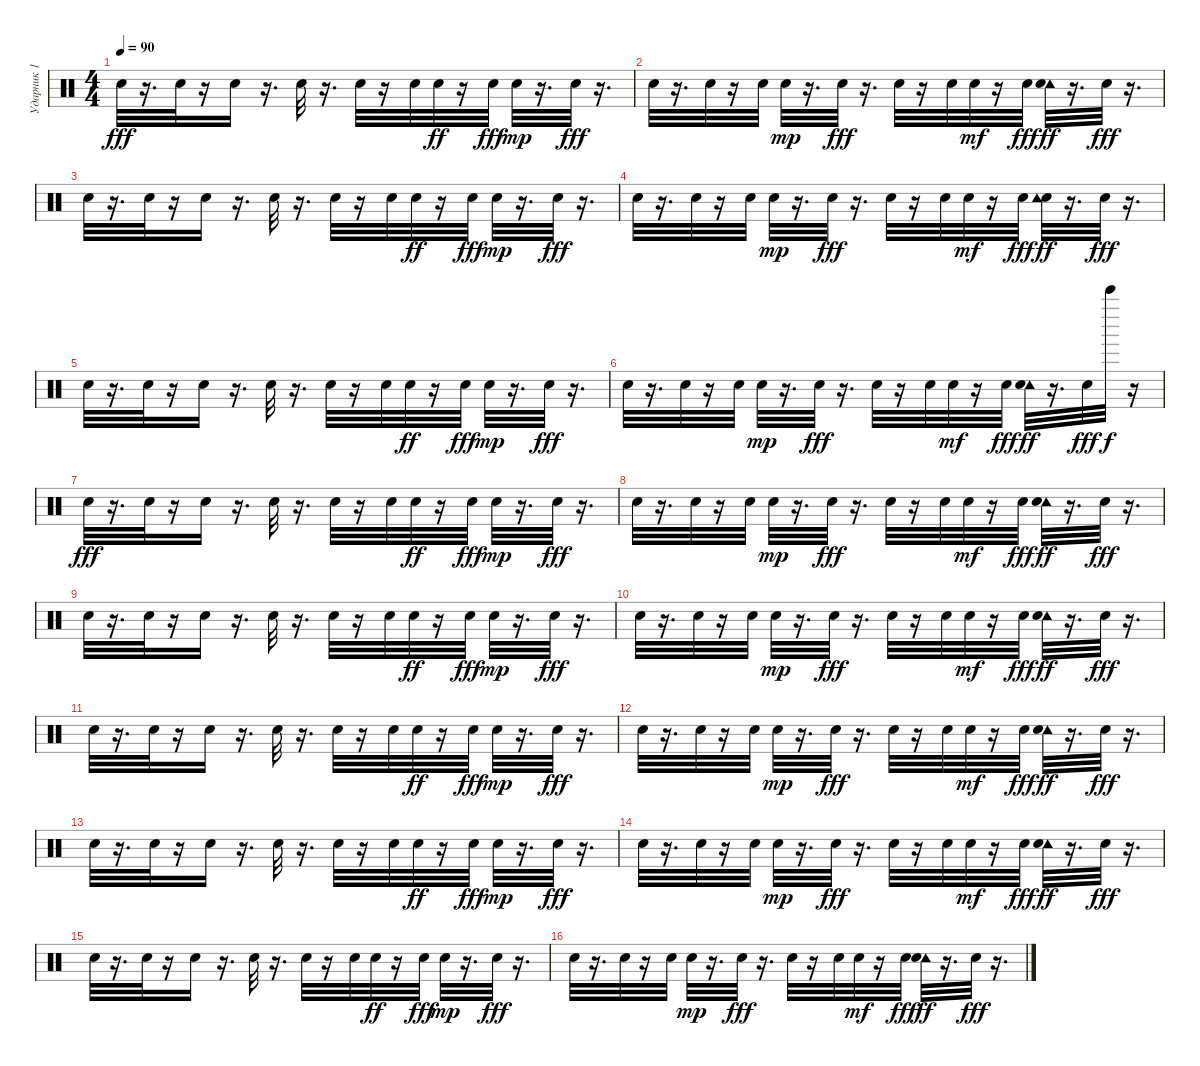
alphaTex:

\track ("Ударник 1" "Ударник 1") {instrument percussion}
\staff {score}
\articulation defaults
\ts (4 4)
\tempo 90
\clef neutral
\ks c "Snare (hit)".32{dy fff}
r.16{d} "Snare (hit)".32 r.16 "Snare (hit)".16 r.16{d} "Snare (hit)".32 r.16{d} "Snare (hit)".32 r.16 "Snare (hit)".32 "Snare (hit)".32{dy ff} r.16 "Snare (hit)".32{dy fff} "Snare (hit)".32{dy mp} r.16{d} "Snare (hit)".32{dy fff} r.16{d} |
"Snare (hit)".32 r.16{d} "Snare (hit)".32 r.16 "Snare (hit)".32 "Snare (hit)".32{dy mp} r.16{d} "Snare (hit)".32{dy fff} r.16{d} "Snare (hit)".32 r.16 "Snare (hit)".32 "Snare (hit)".32{dy mf} r.16 "Snare (hit)".32{dy fff} ("Tambourine (hit)" "Snare (hit)").32{dy ff} r.16{d} "Snare (hit)".32{dy fff} r.16{d} |
"Snare (hit)".32 r.16{d} "Snare (hit)".32 r.16 "Snare (hit)".16 r.16{d} "Snare (hit)".32 r.16{d} "Snare (hit)".32 r.16 "Snare (hit)".32 "Snare (hit)".32{dy ff} r.16 "Snare (hit)".32{dy fff} "Snare (hit)".32{dy mp} r.16{d} "Snare (hit)".32{dy fff} r.16{d} |
"Snare (hit)".32 r.16{d} "Snare (hit)".32 r.16 "Snare (hit)".32 "Snare (hit)".32{dy mp} r.16{d} "Snare (hit)".32{dy fff} r.16{d} "Snare (hit)".32 r.16 "Snare (hit)".32 "Snare (hit)".32{dy mf} r.16 "Snare (hit)".32{dy fff} ("Snare (hit)" "Tambourine (hit)").32{dy ff} r.16{d} "Snare (hit)".32{dy fff} r.16{d} |
"Snare (hit)".32 r.16{d} "Snare (hit)".32 r.16 "Snare (hit)".16 r.16{d} "Snare (hit)".32 r.16{d} "Snare (hit)".32 r.16 "Snare (hit)".32 "Snare (hit)".32{dy ff} r.16 "Snare (hit)".32{dy fff} "Snare (hit)".32{dy mp} r.16{d} "Snare (hit)".32{dy fff} r.16{d} |
"Snare (hit)".32 r.16{d} "Snare (hit)".32 r.16 "Snare (hit)".32 "Snare (hit)".32{dy mp} r.16{d} "Snare (hit)".32{dy fff} r.16{d} "Snare (hit)".32 r.16 "Snare (hit)".32 "Snare (hit)".32{dy mf} r.16 "Snare (hit)".32{dy fff} ("Tambourine (hit)" "Snare (hit)").32{dy ff} r.16{d} "Snare (hit)".32{dy fff} "Bell Tree (hit)".32{dy f} r.16 |
"Snare (hit)".32{dy fff} r.16{d} "Snare (hit)".32 r.16 "Snare (hit)".16 r.16{d} "Snare (hit)".32 r.16{d} "Snare (hit)".32 r.16 "Snare (hit)".32 "Snare (hit)".32{dy ff} r.16 "Snare (hit)".32{dy fff} "Snare (hit)".32{dy mp} r.16{d} "Snare (hit)".32{dy fff} r.16{d} |
"Snare (hit)".32 r.16{d} "Snare (hit)".32 r.16 "Snare (hit)".32 "Snare (hit)".32{dy mp} r.16{d} "Snare (hit)".32{dy fff} r.16{d} "Snare (hit)".32 r.16 "Snare (hit)".32 "Snare (hit)".32{dy mf} r.16 "Snare (hit)".32{dy fff} ("Tambourine (hit)" "Snare (hit)").32{dy ff} r.16{d} "Snare (hit)".32{dy fff} r.16{d} |
"Snare (hit)".32 r.16{d} "Snare (hit)".32 r.16 "Snare (hit)".16 r.16{d} "Snare (hit)".32 r.16{d} "Snare (hit)".32 r.16 "Snare (hit)".32 "Snare (hit)".32{dy ff} r.16 "Snare (hit)".32{dy fff} "Snare (hit)".32{dy mp} r.16{d} "Snare (hit)".32{dy fff} r.16{d} |
"Snare (hit)".32 r.16{d} "Snare (hit)".32 r.16 "Snare (hit)".32 "Snare (hit)".32{dy mp} r.16{d} "Snare (hit)".32{dy fff} r.16{d} "Snare (hit)".32 r.16 "Snare (hit)".32 "Snare (hit)".32{dy mf} r.16 "Snare (hit)".32{dy fff} ("Tambourine (hit)" "Snare (hit)").32{dy ff} r.16{d} "Snare (hit)".32{dy fff} r.16{d} |
"Snare (hit)".32 r.16{d} "Snare (hit)".32 r.16 "Snare (hit)".16 r.16{d} "Snare (hit)".32 r.16{d} "Snare (hit)".32 r.16 "Snare (hit)".32 "Snare (hit)".32{dy ff} r.16 "Snare (hit)".32{dy fff} "Snare (hit)".32{dy mp} r.16{d} "Snare (hit)".32{dy fff} r.16{d} |
"Snare (hit)".32 r.16{d} "Snare (hit)".32 r.16 "Snare (hit)".32 "Snare (hit)".32{dy mp} r.16{d} "Snare (hit)".32{dy fff} r.16{d} "Snare (hit)".32 r.16 "Snare (hit)".32 "Snare (hit)".32{dy mf} r.16 "Snare (hit)".32{dy fff} ("Tambourine (hit)" "Snare (hit)").32{dy ff} r.16{d} "Snare (hit)".32{dy fff} r.16{d} |
"Snare (hit)".32 r.16{d} "Snare (hit)".32 r.16 "Snare (hit)".16 r.16{d} "Snare (hit)".32 r.16{d} "Snare (hit)".32 r.16 "Snare (hit)".32 "Snare (hit)".32{dy ff} r.16 "Snare (hit)".32{dy fff} "Snare (hit)".32{dy mp} r.16{d} "Snare (hit)".32{dy fff} r.16{d} |
"Snare (hit)".32 r.16{d} "Snare (hit)".32 r.16 "Snare (hit)".32 "Snare (hit)".32{dy mp} r.16{d} "Snare (hit)".32{dy fff} r.16{d} "Snare (hit)".32 r.16 "Snare (hit)".32 "Snare (hit)".32{dy mf} r.16 "Snare (hit)".32{dy fff} ("Tambourine (hit)" "Snare (hit)").32{dy ff} r.16{d} "Snare (hit)".32{dy fff} r.16{d} |
"Snare (hit)".32 r.16{d} "Snare (hit)".32 r.16 "Snare (hit)".16 r.16{d} "Snare (hit)".32 r.16{d} "Snare (hit)".32 r.16 "Snare (hit)".32 "Snare (hit)".32{dy ff} r.16 "Snare (hit)".32{dy fff} "Snare (hit)".32{dy mp} r.16{d} "Snare (hit)".32{dy fff} r.16{d} |
"Snare (hit)".32 r.16{d} "Snare (hit)".32 r.16 "Snare (hit)".32 "Snare (hit)".32{dy mp} r.16{d} "Snare (hit)".32{dy fff} r.16{d} "Snare (hit)".32 r.16 "Snare (hit)".32 "Snare (hit)".32{dy mf} r.16 "Snare (hit)".32{dy fff} ("Tambourine (hit)" "Snare (hit)").32{dy ff} r.16{d} "Snare (hit)".32{dy fff} r.16{d}
